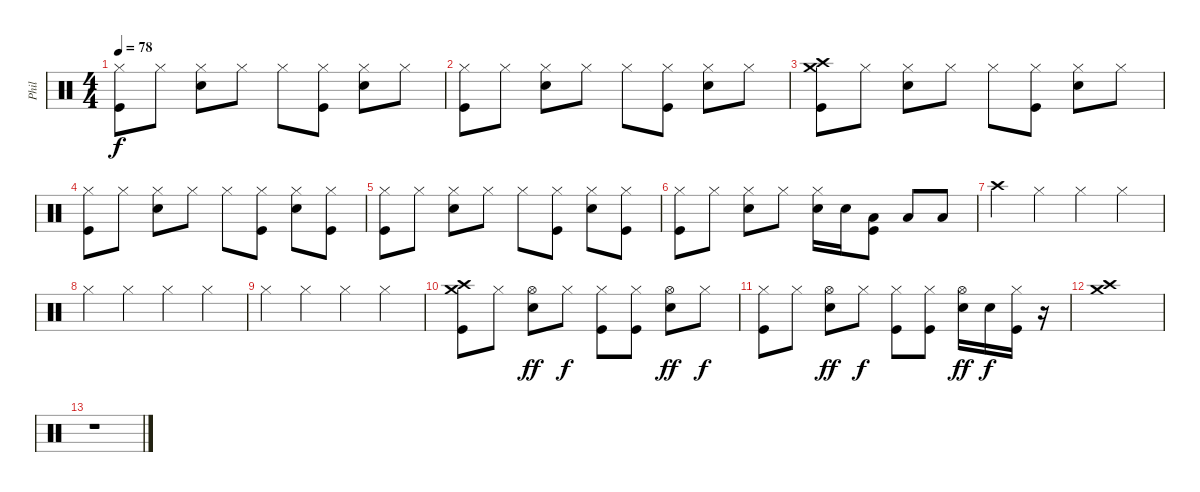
\track ("Phil" "Phil") {instrument percussion}
\staff {score}
\articulation defaults
\ts (4 4)
\tempo 78
\clef neutral
\ks c
("Hi-Hat (closed)" "Kick (hit)").8{dy f} "Hi-Hat (closed)".8 ("Hi-Hat (closed)" "Electric Snare (hit)").8 "Hi-Hat (closed)".8 "Hi-Hat (closed)".8 ("Hi-Hat (closed)" "Kick (hit)").8 ("Hi-Hat (closed)" "Electric Snare (hit)").8 "Hi-Hat (closed)".8 |
("Hi-Hat (closed)" "Kick (hit)").8 "Hi-Hat (closed)".8 ("Hi-Hat (closed)" "Electric Snare (hit)").8 "Hi-Hat (closed)".8 "Hi-Hat (closed)".8 ("Hi-Hat (closed)" "Kick (hit)").8 ("Hi-Hat (closed)" "Electric Snare (hit)").8 "Hi-Hat (closed)".8 |
("Crash high (hit)" "Crash medium (hit)" "Kick (hit)").8 "Hi-Hat (closed)".8 ("Hi-Hat (closed)" "Electric Snare (hit)").8 "Hi-Hat (closed)".8 "Hi-Hat (closed)".8 ("Hi-Hat (closed)" "Kick (hit)").8 ("Hi-Hat (closed)" "Electric Snare (hit)").8 "Hi-Hat (closed)".8 |
("Hi-Hat (closed)" "Kick (hit)").8 "Hi-Hat (closed)".8 ("Hi-Hat (closed)" "Electric Snare (hit)").8 "Hi-Hat (closed)".8 "Hi-Hat (closed)".8 ("Hi-Hat (closed)" "Kick (hit)").8 ("Hi-Hat (closed)" "Electric Snare (hit)").8 ("Hi-Hat (closed)" "Kick (hit)").8 |
("Hi-Hat (closed)" "Kick (hit)").8 "Hi-Hat (closed)".8 ("Hi-Hat (closed)" "Electric Snare (hit)").8 "Hi-Hat (closed)".8 "Hi-Hat (closed)".8 ("Hi-Hat (closed)" "Kick (hit)").8 ("Hi-Hat (closed)" "Electric Snare (hit)").8 ("Hi-Hat (closed)" "Kick (hit)").8 |
("Hi-Hat (closed)" "Kick (hit)").8 "Hi-Hat (closed)".8 ("Hi-Hat (closed)" "Electric Snare (hit)").8 "Hi-Hat (closed)".8 ("Hi-Hat (closed)" "Electric Snare (hit)").16 "Electric Snare (hit)".16 ("Low Floor Tom (hit)" "Kick (hit)").8 "Low Floor Tom (hit)".8 "Low Floor Tom (hit)".8 |
"Crash high (hit)".4 "Hi-Hat (closed)".4 "Hi-Hat (closed)".4 "Hi-Hat (closed)".4 |
"Hi-Hat (closed)".4 "Hi-Hat (closed)".4 "Hi-Hat (closed)".4 "Hi-Hat (closed)".4 |
"Hi-Hat (closed)".4 "Hi-Hat (closed)".4 "Hi-Hat (closed)".4 "Hi-Hat (closed)".4 |
("Crash high (hit)" "Crash medium (hit)" "Kick (hit)").8 "Hi-Hat (closed)".8 ("Hi-Hat (open)" "Electric Snare (hit)").8{dy ff} "Hi-Hat (closed)".8{dy f} ("Hi-Hat (closed)" "Kick (hit)").8 ("Hi-Hat (closed)" "Kick (hit)").8 ("Hi-Hat (open)" "Electric Snare (hit)").8{dy ff} "Hi-Hat (closed)".8{dy f} |
("Hi-Hat (closed)" "Kick (hit)").8 "Hi-Hat (closed)".8 ("Hi-Hat (open)" "Electric Snare (hit)").8{dy ff} "Hi-Hat (closed)".8{dy f} ("Hi-Hat (closed)" "Kick (hit)").8 ("Hi-Hat (closed)" "Kick (hit)").8 ("Hi-Hat (open)" "Electric Snare (hit)").16{dy ff} "Electric Snare (hit)".16{dy f} ("Hi-Hat (closed)" "Kick (hit)").16 r.16 |
("Crash high (hit)" "Crash medium (hit)").1 |
r.1
